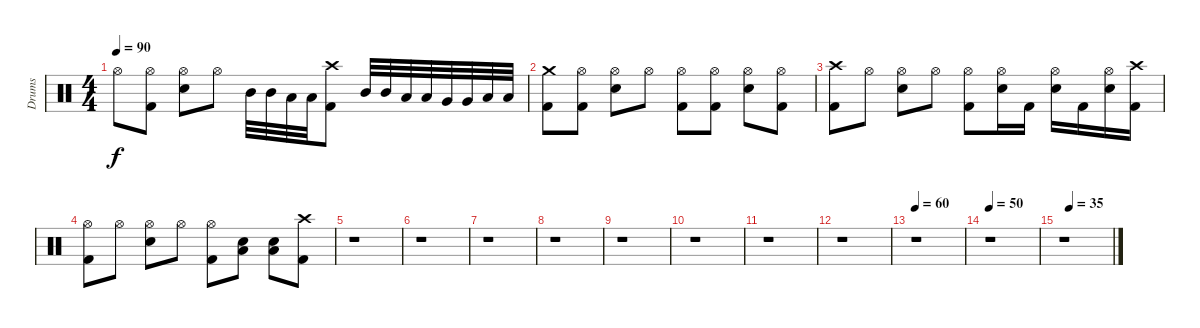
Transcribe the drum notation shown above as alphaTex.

\track ("Drums" "Drums") {instrument percussion}
\staff {score}
\articulation defaults
\ts (4 4)
\tempo 90
\clef neutral
\ks c "Hi-Hat (open)".8{dy f}
("Hi-Hat (open)" "Kick (hit) 2").8 ("Hi-Hat (open)" "Electric Snare (hit)").8 "Hi-Hat (open)".8 "Mid Tom (hit)".32 "Mid Tom (hit)".32 "Low Tom (hit)".32 "Low Tom (hit)".32 ("Crash high (hit)" "Kick (hit) 2").8 "Mid Tom (hit)".32 "Mid Tom (hit)".32 "Low Tom (hit)".32 "Low Tom (hit)".32 "Very Low Tom (hit)".32 "Very Low Tom (hit)".32 "Low Floor Tom (hit)".32 "Low Floor Tom (hit)".32 |
("Crash medium (hit)" "Kick (hit) 2").8 ("Hi-Hat (open)" "Kick (hit) 2").8 ("Hi-Hat (open)" "Electric Snare (hit)").8 "Hi-Hat (open)".8 ("Hi-Hat (open)" "Kick (hit) 2").8 ("Hi-Hat (open)" "Kick (hit) 2").8 ("Hi-Hat (open)" "Electric Snare (hit)").8 ("Hi-Hat (open)" "Kick (hit) 2").8 |
("Crash high (hit)" "Kick (hit) 2").8 "Hi-Hat (open)".8 ("Hi-Hat (open)" "Electric Snare (hit)").8 "Hi-Hat (open)".8 ("Hi-Hat (open)" "Kick (hit) 2").8 ("Hi-Hat (open)" "Electric Snare (hit)").16 "Kick (hit) 2".16 ("Hi-Hat (open)" "Electric Snare (hit)").16 "Kick (hit) 2".16 ("Hi-Hat (open)" "Electric Snare (hit)").16 ("Crash high (hit)" "Kick (hit) 2").16 |
("Hi-Hat (open)" "Kick (hit) 2").8 "Hi-Hat (open)".8 ("Hi-Hat (open)" "Electric Snare (hit)").8 "Hi-Hat (open)".8 ("Hi-Hat (open)" "Kick (hit) 2").8 ("Low Floor Tom (hit)" "Electric Snare (hit)").8 ("Low Floor Tom (hit)" "Electric Snare (hit)").8 ("Crash high (hit)" "Kick (hit) 2").8 |
r.1 |
r.1 |
r.1 |
r.1 |
r.1 |
r.1 |
r.1 |
r.1 |
\tempo 60
r.1 |
\tempo 50
r.1 |
\tempo (35 0.125)
r.1
